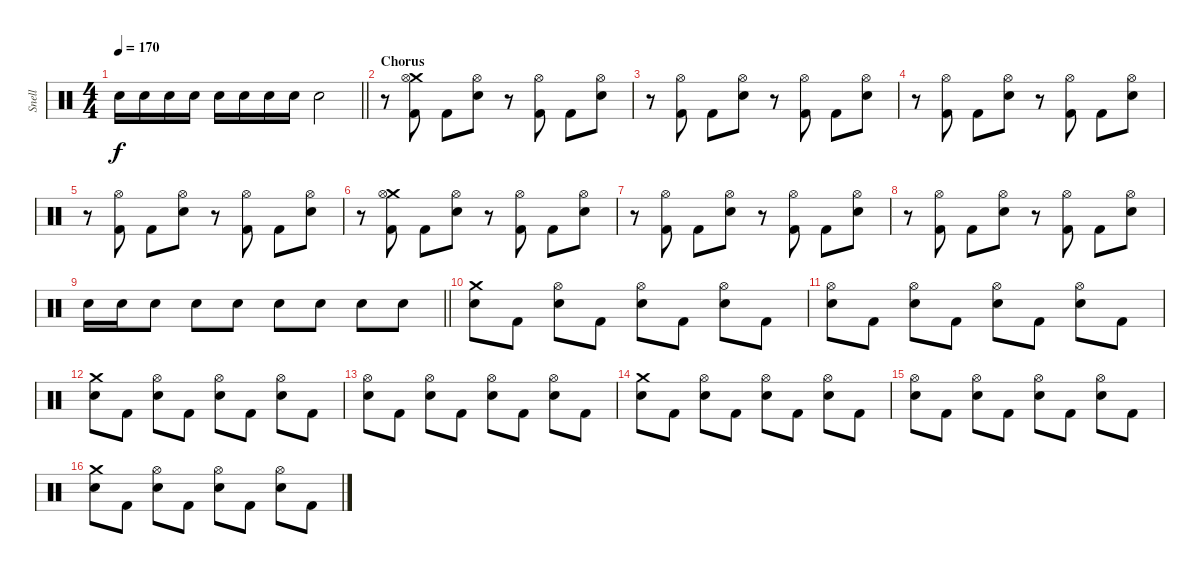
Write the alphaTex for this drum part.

\track ("Snell" "Snell") {instrument percussion}
\staff {score}
\articulation defaults
\ts (4 4)
\tempo 170
\clef neutral
\barLineRight lightlight
\ks c "Electric Snare (hit)".16{dy f} "Electric Snare (hit)".16 "Electric Snare (hit)".16 "Electric Snare (hit)".16 "Electric Snare (hit)".16 "Electric Snare (hit)".16 "Electric Snare (hit)".16 "Electric Snare (hit)".16 "Electric Snare (hit)".2
|
\section ("" "Chorus")
r.8 ("Crash medium (hit)" "Hi-Hat (open)" "Kick (hit) 2").8 "Kick (hit) 2".8 ("Hi-Hat (open)" "Electric Snare (hit)").8 r.8 ("Hi-Hat (open)" "Kick (hit) 2").8 "Kick (hit) 2".8 ("Hi-Hat (open)" "Electric Snare (hit)").8 |
r.8 ("Hi-Hat (open)" "Kick (hit) 2").8 "Kick (hit) 2".8 ("Hi-Hat (open)" "Electric Snare (hit)").8 r.8 ("Hi-Hat (open)" "Kick (hit) 2").8 "Kick (hit) 2".8 ("Hi-Hat (open)" "Electric Snare (hit)").8 |
r.8 ("Hi-Hat (open)" "Kick (hit) 2").8 "Kick (hit) 2".8 ("Hi-Hat (open)" "Electric Snare (hit)").8 r.8 ("Hi-Hat (open)" "Kick (hit) 2").8 "Kick (hit) 2".8 ("Hi-Hat (open)" "Electric Snare (hit)").8 |
r.8 ("Hi-Hat (open)" "Kick (hit) 2").8 "Kick (hit) 2".8 ("Hi-Hat (open)" "Electric Snare (hit)").8 r.8 ("Hi-Hat (open)" "Kick (hit) 2").8 "Kick (hit) 2".8 ("Hi-Hat (open)" "Electric Snare (hit)").8 |
r.8 ("Crash medium (hit)" "Hi-Hat (open)" "Kick (hit) 2").8 "Kick (hit) 2".8 ("Hi-Hat (open)" "Electric Snare (hit)").8 r.8 ("Hi-Hat (open)" "Kick (hit) 2").8 "Kick (hit) 2".8 ("Hi-Hat (open)" "Electric Snare (hit)").8 |
r.8 ("Hi-Hat (open)" "Kick (hit) 2").8 "Kick (hit) 2".8 ("Hi-Hat (open)" "Electric Snare (hit)").8 r.8 ("Hi-Hat (open)" "Kick (hit) 2").8 "Kick (hit) 2".8 ("Hi-Hat (open)" "Electric Snare (hit)").8 |
r.8 ("Hi-Hat (open)" "Kick (hit) 2").8 "Kick (hit) 2".8 ("Hi-Hat (open)" "Electric Snare (hit)").8 r.8 ("Hi-Hat (open)" "Kick (hit) 2").8 "Kick (hit) 2".8 ("Hi-Hat (open)" "Electric Snare (hit)").8 |
\barLineRight lightlight "Electric Snare (hit)".16 "Electric Snare (hit)".16 "Electric Snare (hit)".8 "Electric Snare (hit)".8 "Electric Snare (hit)".8 "Electric Snare (hit)".8 "Electric Snare (hit)".8 "Electric Snare (hit)".8 "Electric Snare (hit)".8
|
("Crash medium (hit)" "Electric Snare (hit)").8 "Kick (hit) 2".8 ("Hi-Hat (open)" "Electric Snare (hit)").8 "Kick (hit) 2".8 ("Hi-Hat (open)" "Electric Snare (hit)").8 "Kick (hit) 2".8 ("Hi-Hat (open)" "Electric Snare (hit)").8 "Kick (hit) 2".8 |
("Hi-Hat (open)" "Electric Snare (hit)").8 "Kick (hit) 2".8 ("Hi-Hat (open)" "Electric Snare (hit)").8 "Kick (hit) 2".8 ("Hi-Hat (open)" "Electric Snare (hit)").8 "Kick (hit) 2".8 ("Hi-Hat (open)" "Electric Snare (hit)").8 "Kick (hit) 2".8 |
("Crash medium (hit)" "Electric Snare (hit)").8 "Kick (hit) 2".8 ("Hi-Hat (open)" "Electric Snare (hit)").8 "Kick (hit) 2".8 ("Hi-Hat (open)" "Electric Snare (hit)").8 "Kick (hit) 2".8 ("Hi-Hat (open)" "Electric Snare (hit)").8 "Kick (hit) 2".8 |
("Hi-Hat (open)" "Electric Snare (hit)").8 "Kick (hit) 2".8 ("Hi-Hat (open)" "Electric Snare (hit)").8 "Kick (hit) 2".8 ("Hi-Hat (open)" "Electric Snare (hit)").8 "Kick (hit) 2".8 ("Hi-Hat (open)" "Electric Snare (hit)").8 "Kick (hit) 2".8 |
("Crash medium (hit)" "Electric Snare (hit)").8 "Kick (hit) 2".8 ("Hi-Hat (open)" "Electric Snare (hit)").8 "Kick (hit) 2".8 ("Hi-Hat (open)" "Electric Snare (hit)").8 "Kick (hit) 2".8 ("Hi-Hat (open)" "Electric Snare (hit)").8 "Kick (hit) 2".8 |
("Hi-Hat (open)" "Electric Snare (hit)").8 "Kick (hit) 2".8 ("Hi-Hat (open)" "Electric Snare (hit)").8 "Kick (hit) 2".8 ("Hi-Hat (open)" "Electric Snare (hit)").8 "Kick (hit) 2".8 ("Hi-Hat (open)" "Electric Snare (hit)").8 "Kick (hit) 2".8 |
("Crash medium (hit)" "Electric Snare (hit)").8 "Kick (hit) 2".8 ("Hi-Hat (open)" "Electric Snare (hit)").8 "Kick (hit) 2".8 ("Hi-Hat (open)" "Electric Snare (hit)").8 "Kick (hit) 2".8 ("Hi-Hat (open)" "Electric Snare (hit)").8 "Kick (hit) 2".8
